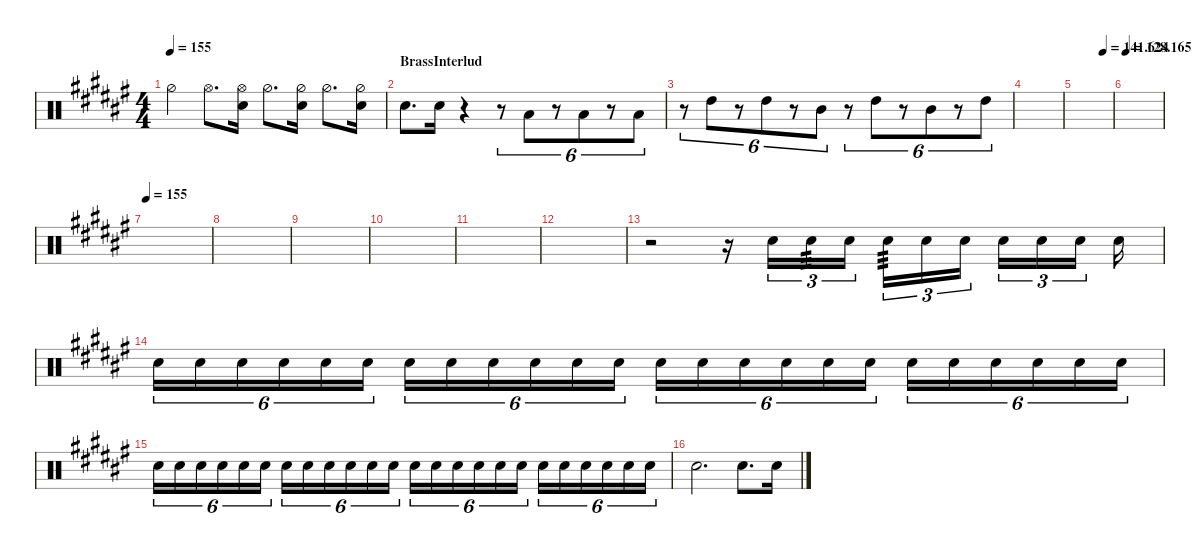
\hideDynamics
\bracketExtendMode nobrackets
\singleTrackTrackNamePolicy hidden
\multiTrackTrackNamePolicy hidden
\otherSystemsTrackNameOrientation horizontal
\track ("Drums" "Drums") {instrument percussion}
\staff {score}
\articulation defaults
\ts (4 4)
\tempo 155
\clef neutral
\scale
0.29021
\ks f# "Hi-Hat (half)"{acc forcenatural}.4{dy p beam Down} "Hi-Hat (open)"{acc forcenatural}.8{d beam Down}
("Snare (hit) 2"{acc forcenatural} "Hi-Hat (open)"{acc forcenatural}).16{beam Down} "Hi-Hat (half)"{acc forcenatural}.8{d beam Down} ("Hi-Hat (half)"{acc forcenatural} "Snare (hit) 2"{acc forcenatural}).16{beam Down} "Hi-Hat (half)"{acc forcenatural}.8{d beam Down} ("Snare (hit) 2"{acc forcenatural} "Hi-Hat (half)"{acc forcenatural}).16{beam Down} |
\section ("" "BrassInterlud")
"Snare (hit) 2"{acc forcenatural}.8{d dy mp beam Down} "Snare (hit) 2"{acc forcenatural}.16{dy p beam Down} r.4{beam Down} r.8{tu (6 4) beam Down} "Low Tom (hit)"{acc forcenatural}.8{tu (6 4) dy mp beam Up} r.8{tu (6 4) beam Up} "Low Tom (hit)"{acc forcenatural}.8{tu (6 4) beam Up} r.8{tu (6 4) beam Up} "Low Tom (hit)"{acc forcenatural}.8{tu (6 4) beam Up} |
r.8{tu (6 4) beam Down} "High Tom (hit)"{acc forcenatural}.8{tu (6 4) dy pp beam Down} r.8{tu (6 4) beam Down} "High Tom (hit)"{acc forcenatural}.8{tu (6 4) beam Down} r.8{tu (6 4) beam Down} "Mid Tom (hit)"{acc forcenatural}.8{tu (6 4) dy p beam Down} r.8{tu (6 4) beam Down} "High Tom (hit)"{acc forcenatural}.8{tu (6 4) dy pp beam Down} r.8{tu (6 4) beam Down} "Mid Tom (hit)"{acc forcenatural}.8{tu (6 4) dy p beam Down} r.8{tu (6 4) beam Down} "High Tom (hit)"{acc forcenatural}.8{tu (6 4) dy pp beam Down} |
|
\tempo (141.624 0.75)
|
\tempo
128.165 |
\tempo (155 0.00625)
|
|
|
|
|
|
r.2{beam Down} r.16{beam Down} "Snare (hit) 2"{acc forcenatural}.16{tu (3 2) dy p beam Down} "Snare (hit) 2"{acc forcenatural}.16{tu (3 2) tp 3 beam Down} "Snare (hit) 2"{acc forcenatural}.16{tu (3 2) beam Down} "Snare (hit) 2"{acc forcenatural}.16{tu (3 2) tp 3 beam Down} "Snare (hit) 2"{acc forcenatural}.16{tu (3 2) beam Down} "Snare (hit) 2"{acc forcenatural}.16{tu (3 2) beam Down} "Snare (hit) 2"{acc forcenatural}.16{tu (3 2) beam Down} "Snare (hit) 2"{acc forcenatural}.16{tu (3 2) beam Down} "Snare (hit) 2"{acc forcenatural}.16{tu (3 2) beam Down} "Snare (hit) 2"{acc forcenatural}.16{beam Down} |
"Snare (hit) 2"{acc forcenatural}.16{tu (6 4) beam Down} "Snare (hit) 2"{acc forcenatural}.16{tu (6 4) beam Down} "Snare (hit) 2"{acc forcenatural}.16{tu (6 4) beam Down} "Snare (hit) 2"{acc forcenatural}.16{tu (6 4) beam Down} "Snare (hit) 2"{acc forcenatural}.16{tu (6 4) beam Down} "Snare (hit) 2"{acc forcenatural}.16{tu (6 4) beam Down} "Snare (hit) 2"{acc forcenatural}.16{tu (6 4) beam Down} "Snare (hit) 2"{acc forcenatural}.16{tu (6 4) beam Down} "Snare (hit) 2"{acc forcenatural}.16{tu (6 4) beam Down} "Snare (hit) 2"{acc forcenatural}.16{tu (6 4) beam Down} "Snare (hit) 2"{acc forcenatural}.16{tu (6 4) beam Down} "Snare (hit) 2"{acc forcenatural}.16{tu (6 4) beam Down} "Snare (hit) 2"{acc forcenatural}.16{tu (6 4) beam Down} "Snare (hit) 2"{acc forcenatural}.16{tu (6 4) beam Down} "Snare (hit) 2"{acc forcenatural}.16{tu (6 4) beam Down} "Snare (hit) 2"{acc forcenatural}.16{tu (6 4) beam Down} "Snare (hit) 2"{acc forcenatural}.16{tu (6 4) beam Down} "Snare (hit) 2"{acc forcenatural}.16{tu (6 4) beam Down} "Snare (hit) 2"{acc forcenatural}.16{tu (6 4) beam Down} "Snare (hit) 2"{acc forcenatural}.16{tu (6 4) beam Down} "Snare (hit) 2"{acc forcenatural}.16{tu (6 4) beam Down} "Snare (hit) 2"{acc forcenatural}.16{tu (6 4) beam Down} "Snare (hit) 2"{acc forcenatural}.16{tu (6 4) beam Down} "Snare (hit) 2"{acc forcenatural}.16{tu (6 4) beam Down} |
"Snare (hit) 2"{acc forcenatural}.16{tu (6 4) dy pp beam Down} "Snare (hit) 2"{acc forcenatural}.16{tu (6 4) beam Down} "Snare (hit) 2"{acc forcenatural}.16{tu (6 4) beam Down} "Snare (hit) 2"{acc forcenatural}.16{tu (6 4) beam Down} "Snare (hit) 2"{acc forcenatural}.16{tu (6 4) beam Down} "Snare (hit) 2"{acc forcenatural}.16{tu (6 4) beam Down} "Snare (hit) 2"{acc forcenatural}.16{tu (6 4) beam Down} "Snare (hit) 2"{acc forcenatural}.16{tu (6 4) beam Down} "Snare (hit) 2"{acc forcenatural}.16{tu (6 4) beam Down} "Snare (hit) 2"{acc forcenatural}.16{tu (6 4) beam Down} "Snare (hit) 2"{acc forcenatural}.16{tu (6 4) beam Down} "Snare (hit) 2"{acc forcenatural}.16{tu (6 4) beam Down} "Snare (hit) 2"{acc forcenatural}.16{tu (6 4) dy p beam Down} "Snare (hit) 2"{acc forcenatural}.16{tu (6 4) beam Down} "Snare (hit) 2"{acc forcenatural}.16{tu (6 4) beam Down} "Snare (hit) 2"{acc forcenatural}.16{tu (6 4) beam Down} "Snare (hit) 2"{acc forcenatural}.16{tu (6 4) beam Down} "Snare (hit) 2"{acc forcenatural}.16{tu (6 4) beam Down} "Snare (hit) 2"{acc forcenatural}.16{tu (6 4) beam Down} "Snare (hit) 2"{acc forcenatural}.16{tu (6 4) beam Down} "Snare (hit) 2"{acc forcenatural}.16{tu (6 4) beam Down} "Snare (hit) 2"{acc forcenatural}.16{tu (6 4) dy mp beam Down} "Snare (hit) 2"{acc forcenatural}.16{tu (6 4) beam Down} "Snare (hit) 2"{acc forcenatural}.16{tu (6 4) beam Down} |
"Snare (hit) 2"{acc forcenatural}.2{d dy mf beam Down} "Snare (hit) 2"{acc forcenatural}.8{d dy mp beam Down} "Snare (hit) 2"{acc forcenatural}.16{beam Down}
